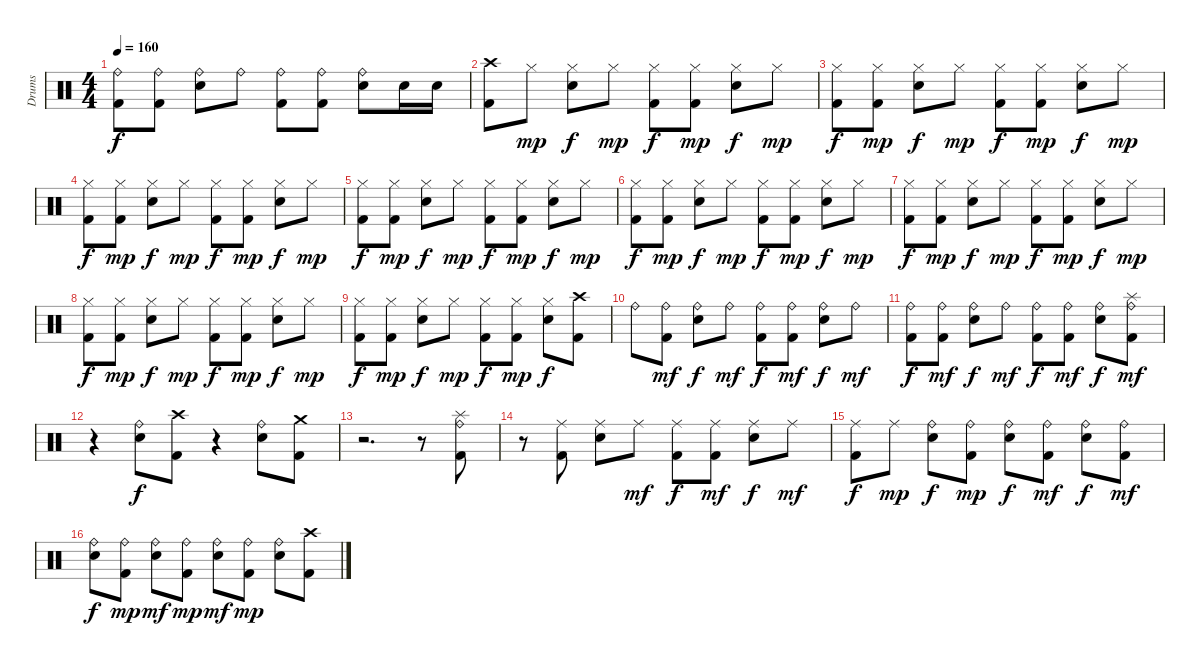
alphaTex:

\track ("Drums" "Drums") {instrument percussion}
\staff {score}
\articulation defaults
\ts (4 4)
\tempo 160
\clef neutral
\ks c
("Kick (hit) 2" "Ride (bell)").8{dy f} ("Kick (hit) 2" "Ride (bell)").8 ("Snare (hit) 2" "Ride (bell)").8 "Ride (bell)".8 ("Kick (hit) 2" "Ride (bell)").8 ("Kick (hit) 2" "Ride (bell)").8 ("Snare (hit) 2" "Ride (bell)").8 "Snare (hit) 2".16 "Snare (hit) 2".16 |
("Kick (hit) 2" "Crash high (hit)").8 "Hi-Hat (closed)".8{dy mp} ("Snare (hit) 2" "Hi-Hat (closed)").8{dy f} "Hi-Hat (closed)".8{dy mp} ("Kick (hit) 2" "Hi-Hat (closed)").8{dy f} ("Kick (hit) 2" "Hi-Hat (closed)").8{dy mp} ("Snare (hit) 2" "Hi-Hat (closed)").8{dy f} "Hi-Hat (closed)".8{dy mp} |
("Kick (hit) 2" "Hi-Hat (closed)").8{dy f} ("Kick (hit) 2" "Hi-Hat (closed)").8{dy mp} ("Snare (hit) 2" "Hi-Hat (closed)").8{dy f} "Hi-Hat (closed)".8{dy mp} ("Kick (hit) 2" "Hi-Hat (closed)").8{dy f} ("Kick (hit) 2" "Hi-Hat (closed)").8{dy mp} ("Snare (hit) 2" "Hi-Hat (closed)").8{dy f} "Hi-Hat (closed)".8{dy mp} |
("Kick (hit) 2" "Hi-Hat (closed)").8{dy f} ("Kick (hit) 2" "Hi-Hat (closed)").8{dy mp} ("Snare (hit) 2" "Hi-Hat (closed)").8{dy f} "Hi-Hat (closed)".8{dy mp} ("Kick (hit) 2" "Hi-Hat (closed)").8{dy f} ("Kick (hit) 2" "Hi-Hat (closed)").8{dy mp} ("Snare (hit) 2" "Hi-Hat (closed)").8{dy f} "Hi-Hat (closed)".8{dy mp} |
("Kick (hit) 2" "Hi-Hat (closed)").8{dy f} ("Kick (hit) 2" "Hi-Hat (closed)").8{dy mp} ("Snare (hit) 2" "Hi-Hat (closed)").8{dy f} "Hi-Hat (closed)".8{dy mp} ("Kick (hit) 2" "Hi-Hat (closed)").8{dy f} ("Kick (hit) 2" "Hi-Hat (closed)").8{dy mp} ("Snare (hit) 2" "Hi-Hat (closed)").8{dy f} "Hi-Hat (closed)".8{dy mp} |
("Kick (hit) 2" "Hi-Hat (closed)").8{dy f} ("Kick (hit) 2" "Hi-Hat (closed)").8{dy mp} ("Snare (hit) 2" "Hi-Hat (closed)").8{dy f} "Hi-Hat (closed)".8{dy mp} ("Kick (hit) 2" "Hi-Hat (closed)").8{dy f} ("Kick (hit) 2" "Hi-Hat (closed)").8{dy mp} ("Snare (hit) 2" "Hi-Hat (closed)").8{dy f} "Hi-Hat (closed)".8{dy mp} |
("Kick (hit) 2" "Hi-Hat (closed)").8{dy f} ("Kick (hit) 2" "Hi-Hat (closed)").8{dy mp} ("Snare (hit) 2" "Hi-Hat (closed)").8{dy f} "Hi-Hat (closed)".8{dy mp} ("Kick (hit) 2" "Hi-Hat (closed)").8{dy f} ("Kick (hit) 2" "Hi-Hat (closed)").8{dy mp} ("Snare (hit) 2" "Hi-Hat (closed)").8{dy f} "Hi-Hat (closed)".8{dy mp} |
("Kick (hit) 2" "Hi-Hat (closed)").8{dy f} ("Kick (hit) 2" "Hi-Hat (closed)").8{dy mp} ("Snare (hit) 2" "Hi-Hat (closed)").8{dy f} "Hi-Hat (closed)".8{dy mp} ("Kick (hit) 2" "Hi-Hat (closed)").8{dy f} ("Kick (hit) 2" "Hi-Hat (closed)").8{dy mp} ("Snare (hit) 2" "Hi-Hat (closed)").8{dy f} "Hi-Hat (closed)".8{dy mp} |
("Kick (hit) 2" "Hi-Hat (closed)").8{dy f} ("Kick (hit) 2" "Hi-Hat (closed)").8{dy mp} ("Snare (hit) 2" "Hi-Hat (closed)").8{dy f} "Hi-Hat (closed)".8{dy mp} ("Kick (hit) 2" "Hi-Hat (closed)").8{dy f} ("Kick (hit) 2" "Hi-Hat (closed)").8{dy mp} ("Snare (hit) 2" "Hi-Hat (closed)").8{dy f} ("Kick (hit) 2" "Crash high (hit)").8 |
"Ride (bell)".8 ("Kick (hit) 2" "Ride (bell)").8{dy mf} ("Snare (hit) 2" "Ride (bell)").8{dy f} "Ride (bell)".8{dy mf} ("Kick (hit) 2" "Ride (bell)").8{dy f} ("Kick (hit) 2" "Ride (bell)").8{dy mf} ("Snare (hit) 2" "Ride (bell)").8{dy f} "Ride (bell)".8{dy mf} |
("Kick (hit) 2" "Ride (bell)").8{dy f} ("Kick (hit) 2" "Ride (bell)").8{dy mf} ("Snare (hit) 2" "Ride (bell)").8{dy f} "Ride (bell)".8{dy mf} ("Kick (hit) 2" "Ride (bell)").8{dy f} ("Kick (hit) 2" "Ride (bell)").8{dy mf} ("Snare (hit) 2" "Ride (bell)").8{dy f} ("Kick (hit) 2" "Splash (hit)" "Ride (bell)").8{dy mf} |
r.4 ("Snare (hit) 2" "Ride (bell)").8{dy f} ("Kick (hit) 2" "Crash high (hit)").8 r.4 ("Snare (hit) 2" "Ride (bell)").8 ("Kick (hit) 2" "Crash medium (hit)").8 |
r.2{d} r.8 ("Kick (hit) 2" "Splash (hit)" "Ride (bell)").8 |
r.8 ("Kick (hit) 2" "Ride (middle)").8 ("Snare (hit) 2" "Ride (middle)").8 "Ride (middle)".8{dy mf} ("Kick (hit) 2" "Ride (middle)").8{dy f} ("Kick (hit) 2" "Ride (middle)").8{dy mf} ("Snare (hit) 2" "Ride (middle)").8{dy f} "Ride (middle)".8{dy mf} |
("Kick (hit) 2" "Ride (middle)").8{dy f} "Ride (middle)".8{dy mp} ("Snare (hit) 2" "Ride (bell)").8{dy f} ("Kick (hit) 2" "Ride (bell)").8{dy mp} ("Snare (hit) 2" "Ride (bell)").8{dy f} ("Kick (hit) 2" "Ride (bell)").8{dy mf} ("Snare (hit) 2" "Ride (bell)").8{dy f} ("Kick (hit) 2" "Ride (bell)").8{dy mf} |
("Snare (hit) 2" "Ride (bell)").8{dy f} ("Kick (hit) 2" "Ride (bell)").8{dy mp} ("Snare (hit) 2" "Ride (bell)").8{dy mf} ("Kick (hit) 2" "Ride (bell)").8{dy mp} ("Snare (hit) 2" "Ride (bell)").8{dy mf} ("Kick (hit) 2" "Ride (bell)").8{dy mp} ("Snare (hit) 2" "Ride (bell)").8 ("Kick (hit) 2" "Crash high (hit)").8
